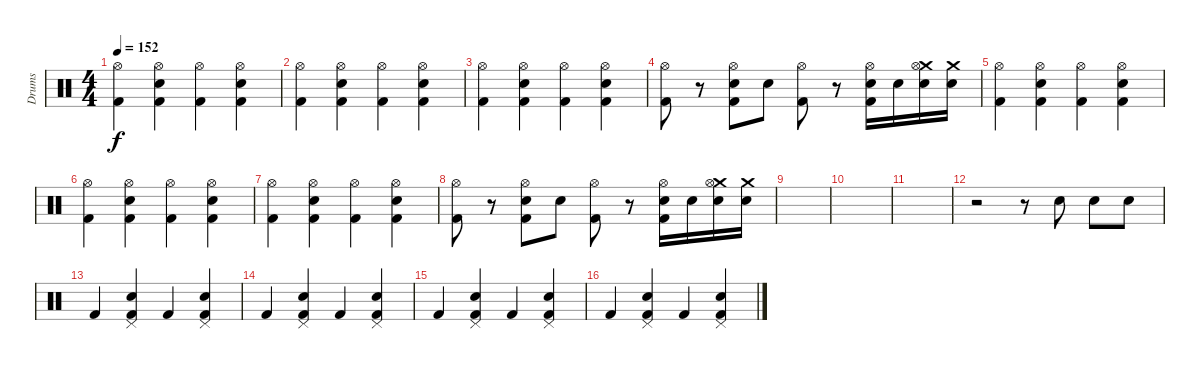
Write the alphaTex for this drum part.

\track ("Drums" "Drums") {instrument percussion}
\staff {score}
\articulation defaults
\ts (4 4)
\tempo 152
\clef neutral
\ks c
("Hi-Hat (open)" "Kick (hit) 2").4{dy f} ("Snare (hit) 2" "Hi-Hat (open)" "Kick (hit) 2").4 ("Hi-Hat (open)" "Kick (hit) 2").4 ("Snare (hit) 2" "Hi-Hat (open)" "Kick (hit) 2").4 |
("Hi-Hat (open)" "Kick (hit) 2").4 ("Snare (hit) 2" "Hi-Hat (open)" "Kick (hit) 2").4 ("Hi-Hat (open)" "Kick (hit) 2").4 ("Snare (hit) 2" "Hi-Hat (open)" "Kick (hit) 2").4 |
("Hi-Hat (open)" "Kick (hit) 2").4 ("Snare (hit) 2" "Hi-Hat (open)" "Kick (hit) 2").4 ("Hi-Hat (open)" "Kick (hit) 2").4 ("Snare (hit) 2" "Hi-Hat (open)" "Kick (hit) 2").4 |
("Hi-Hat (open)" "Kick (hit) 2").8 r.8 ("Snare (hit) 2" "Hi-Hat (open)" "Kick (hit) 2").8 "Snare (hit) 2".8 ("Hi-Hat (open)" "Kick (hit) 2").8 r.8 ("Snare (hit) 2" "Hi-Hat (open)" "Kick (hit) 2").16 "Snare (hit) 2".16 ("Crash medium (hit)" "Snare (hit) 2" "Hi-Hat (open)").16 ("Crash medium (hit)" "Snare (hit) 2").16 |
("Hi-Hat (open)" "Kick (hit) 2").4 ("Snare (hit) 2" "Hi-Hat (open)" "Kick (hit) 2").4 ("Hi-Hat (open)" "Kick (hit) 2").4 ("Snare (hit) 2" "Hi-Hat (open)" "Kick (hit) 2").4 |
("Hi-Hat (open)" "Kick (hit) 2").4 ("Snare (hit) 2" "Hi-Hat (open)" "Kick (hit) 2").4 ("Hi-Hat (open)" "Kick (hit) 2").4 ("Snare (hit) 2" "Hi-Hat (open)" "Kick (hit) 2").4 |
("Hi-Hat (open)" "Kick (hit) 2").4 ("Snare (hit) 2" "Hi-Hat (open)" "Kick (hit) 2").4 ("Hi-Hat (open)" "Kick (hit) 2").4 ("Snare (hit) 2" "Hi-Hat (open)" "Kick (hit) 2").4 |
("Hi-Hat (open)" "Kick (hit) 2").8 r.8 ("Snare (hit) 2" "Hi-Hat (open)" "Kick (hit) 2").8 "Snare (hit) 2".8 ("Hi-Hat (open)" "Kick (hit) 2").8 r.8 ("Snare (hit) 2" "Hi-Hat (open)" "Kick (hit) 2").16 "Snare (hit) 2".16 ("Crash medium (hit)" "Snare (hit) 2" "Hi-Hat (open)").16 ("Crash medium (hit)" "Snare (hit) 2").16 |
|
|
|
r.2 r.8 "Snare (hit) 2".8 "Snare (hit) 2".8 "Snare (hit) 2".8 |
"Kick (hit) 2".4 ("Snare (hit) 2" "Pedal Hi-Hat (hit)" "Kick (hit) 2").4 "Kick (hit) 2".4 ("Snare (hit) 2" "Pedal Hi-Hat (hit)" "Kick (hit) 2").4 |
"Kick (hit) 2".4 ("Snare (hit) 2" "Pedal Hi-Hat (hit)" "Kick (hit) 2").4 "Kick (hit) 2".4 ("Snare (hit) 2" "Pedal Hi-Hat (hit)" "Kick (hit) 2").4 |
"Kick (hit) 2".4 ("Snare (hit) 2" "Pedal Hi-Hat (hit)" "Kick (hit) 2").4 "Kick (hit) 2".4 ("Snare (hit) 2" "Pedal Hi-Hat (hit)" "Kick (hit) 2").4 |
"Kick (hit) 2".4 ("Snare (hit) 2" "Pedal Hi-Hat (hit)" "Kick (hit) 2").4 "Kick (hit) 2".4 ("Snare (hit) 2" "Pedal Hi-Hat (hit)" "Kick (hit) 2").4
